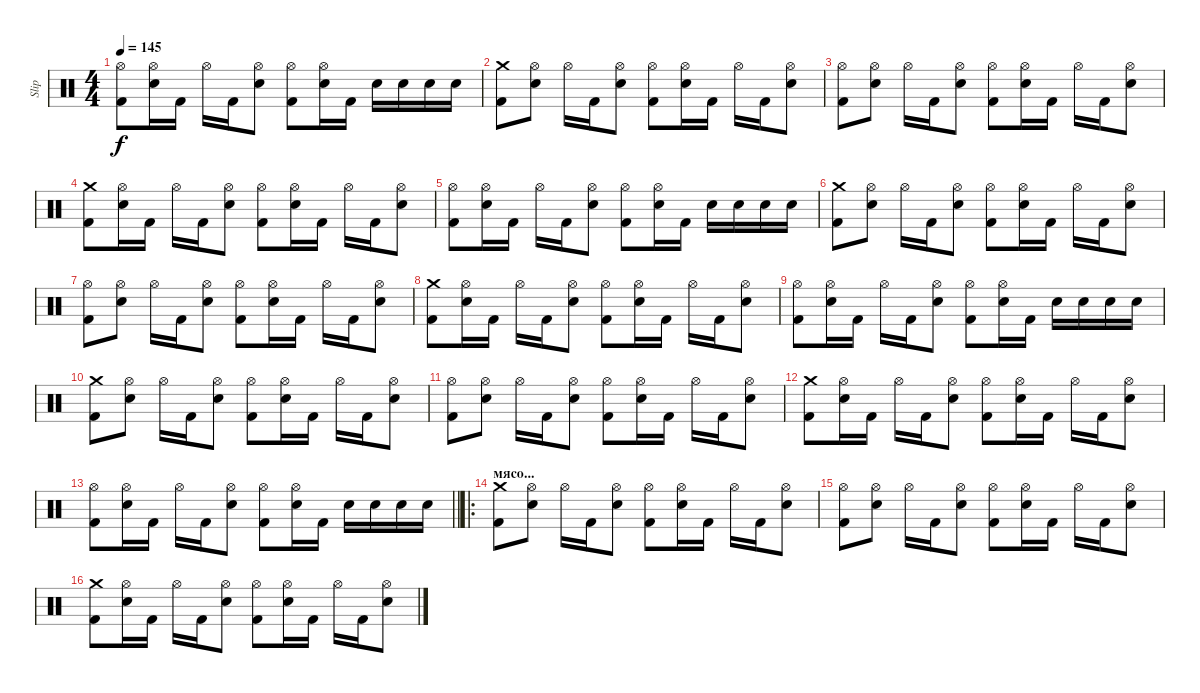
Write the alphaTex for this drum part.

\track ("Slip" "Slip") {instrument percussion}
\staff {score}
\articulation defaults
\ts (4 4)
\tempo 145
\clef neutral
\ks c
("Kick (hit) 2" "Hi-Hat (open)").8{dy f} ("Electric Snare (hit)" "Hi-Hat (open)").16 "Kick (hit) 2".16 "Hi-Hat (open)".16 "Kick (hit) 2".16 ("Electric Snare (hit)" "Hi-Hat (open)").8 ("Kick (hit) 2" "Hi-Hat (open)").8 ("Electric Snare (hit)" "Hi-Hat (open)").16 "Kick (hit) 2".16 "Electric Snare (hit)".16 "Electric Snare (hit)".16 "Electric Snare (hit)".16 "Electric Snare (hit)".16 |
("Kick (hit) 2" "Crash medium (hit)").8 ("Electric Snare (hit)" "Hi-Hat (open)").8 "Hi-Hat (open)".16 "Kick (hit) 2".16 ("Electric Snare (hit)" "Hi-Hat (open)").8 ("Kick (hit) 2" "Hi-Hat (open)").8 ("Electric Snare (hit)" "Hi-Hat (open)").16 "Kick (hit) 2".16 "Hi-Hat (open)".16 "Kick (hit) 2".16 ("Electric Snare (hit)" "Hi-Hat (open)").8 |
("Kick (hit) 2" "Hi-Hat (open)").8 ("Electric Snare (hit)" "Hi-Hat (open)").8 "Hi-Hat (open)".16 "Kick (hit) 2".16 ("Electric Snare (hit)" "Hi-Hat (open)").8 ("Kick (hit) 2" "Hi-Hat (open)").8 ("Electric Snare (hit)" "Hi-Hat (open)").16 "Kick (hit) 2".16 "Hi-Hat (open)".16 "Kick (hit) 2".16 ("Electric Snare (hit)" "Hi-Hat (open)").8 |
("Kick (hit) 2" "Crash medium (hit)").8 ("Electric Snare (hit)" "Hi-Hat (open)").16 "Kick (hit) 2".16 "Hi-Hat (open)".16 "Kick (hit) 2".16 ("Electric Snare (hit)" "Hi-Hat (open)").8 ("Kick (hit) 2" "Hi-Hat (open)").8 ("Electric Snare (hit)" "Hi-Hat (open)").16 "Kick (hit) 2".16 "Hi-Hat (open)".16 "Kick (hit) 2".16 ("Electric Snare (hit)" "Hi-Hat (open)").8 |
("Kick (hit) 2" "Hi-Hat (open)").8 ("Electric Snare (hit)" "Hi-Hat (open)").16 "Kick (hit) 2".16 "Hi-Hat (open)".16 "Kick (hit) 2".16 ("Electric Snare (hit)" "Hi-Hat (open)").8 ("Kick (hit) 2" "Hi-Hat (open)").8 ("Electric Snare (hit)" "Hi-Hat (open)").16 "Kick (hit) 2".16 "Electric Snare (hit)".16 "Electric Snare (hit)".16 "Electric Snare (hit)".16 "Electric Snare (hit)".16 |
("Kick (hit) 2" "Crash medium (hit)").8 ("Electric Snare (hit)" "Hi-Hat (open)").8 "Hi-Hat (open)".16 "Kick (hit) 2".16 ("Electric Snare (hit)" "Hi-Hat (open)").8 ("Kick (hit) 2" "Hi-Hat (open)").8 ("Electric Snare (hit)" "Hi-Hat (open)").16 "Kick (hit) 2".16 "Hi-Hat (open)".16 "Kick (hit) 2".16 ("Electric Snare (hit)" "Hi-Hat (open)").8 |
("Kick (hit) 2" "Hi-Hat (open)").8 ("Electric Snare (hit)" "Hi-Hat (open)").8 "Hi-Hat (open)".16 "Kick (hit) 2".16 ("Electric Snare (hit)" "Hi-Hat (open)").8 ("Kick (hit) 2" "Hi-Hat (open)").8 ("Electric Snare (hit)" "Hi-Hat (open)").16 "Kick (hit) 2".16 "Hi-Hat (open)".16 "Kick (hit) 2".16 ("Electric Snare (hit)" "Hi-Hat (open)").8 |
("Kick (hit) 2" "Crash medium (hit)").8 ("Electric Snare (hit)" "Hi-Hat (open)").16 "Kick (hit) 2".16 "Hi-Hat (open)".16 "Kick (hit) 2".16 ("Electric Snare (hit)" "Hi-Hat (open)").8 ("Kick (hit) 2" "Hi-Hat (open)").8 ("Electric Snare (hit)" "Hi-Hat (open)").16 "Kick (hit) 2".16 "Hi-Hat (open)".16 "Kick (hit) 2".16 ("Electric Snare (hit)" "Hi-Hat (open)").8 |
("Kick (hit) 2" "Hi-Hat (open)").8 ("Electric Snare (hit)" "Hi-Hat (open)").16 "Kick (hit) 2".16 "Hi-Hat (open)".16 "Kick (hit) 2".16 ("Electric Snare (hit)" "Hi-Hat (open)").8 ("Kick (hit) 2" "Hi-Hat (open)").8 ("Electric Snare (hit)" "Hi-Hat (open)").16 "Kick (hit) 2".16 "Electric Snare (hit)".16 "Electric Snare (hit)".16 "Electric Snare (hit)".16 "Electric Snare (hit)".16 |
("Kick (hit) 2" "Crash medium (hit)").8 ("Electric Snare (hit)" "Hi-Hat (open)").8 "Hi-Hat (open)".16 "Kick (hit) 2".16 ("Electric Snare (hit)" "Hi-Hat (open)").8 ("Kick (hit) 2" "Hi-Hat (open)").8 ("Electric Snare (hit)" "Hi-Hat (open)").16 "Kick (hit) 2".16 "Hi-Hat (open)".16 "Kick (hit) 2".16 ("Electric Snare (hit)" "Hi-Hat (open)").8 |
("Kick (hit) 2" "Hi-Hat (open)").8 ("Electric Snare (hit)" "Hi-Hat (open)").8 "Hi-Hat (open)".16 "Kick (hit) 2".16 ("Electric Snare (hit)" "Hi-Hat (open)").8 ("Kick (hit) 2" "Hi-Hat (open)").8 ("Electric Snare (hit)" "Hi-Hat (open)").16 "Kick (hit) 2".16 "Hi-Hat (open)".16 "Kick (hit) 2".16 ("Electric Snare (hit)" "Hi-Hat (open)").8 |
("Kick (hit) 2" "Crash medium (hit)").8 ("Electric Snare (hit)" "Hi-Hat (open)").16 "Kick (hit) 2".16 "Hi-Hat (open)".16 "Kick (hit) 2".16 ("Electric Snare (hit)" "Hi-Hat (open)").8 ("Kick (hit) 2" "Hi-Hat (open)").8 ("Electric Snare (hit)" "Hi-Hat (open)").16 "Kick (hit) 2".16 "Hi-Hat (open)".16 "Kick (hit) 2".16 ("Electric Snare (hit)" "Hi-Hat (open)").8 |
\barLineRight lightlight
("Kick (hit) 2" "Hi-Hat (open)").8 ("Electric Snare (hit)" "Hi-Hat (open)").16 "Kick (hit) 2".16 "Hi-Hat (open)".16 "Kick (hit) 2".16 ("Electric Snare (hit)" "Hi-Hat (open)").8 ("Kick (hit) 2" "Hi-Hat (open)").8 ("Electric Snare (hit)" "Hi-Hat (open)").16 "Kick (hit) 2".16 "Electric Snare (hit)".16 "Electric Snare (hit)".16 "Electric Snare (hit)".16 "Electric Snare (hit)".16 |
\ro
\section ("" "мясо...")
("Kick (hit) 2" "Crash medium (hit)").8 ("Electric Snare (hit)" "Hi-Hat (open)").8 "Hi-Hat (open)".16 "Kick (hit) 2".16 ("Electric Snare (hit)" "Hi-Hat (open)").8 ("Kick (hit) 2" "Hi-Hat (open)").8 ("Electric Snare (hit)" "Hi-Hat (open)").16 "Kick (hit) 2".16 "Hi-Hat (open)".16 "Kick (hit) 2".16 ("Electric Snare (hit)" "Hi-Hat (open)").8 |
("Kick (hit) 2" "Hi-Hat (open)").8 ("Electric Snare (hit)" "Hi-Hat (open)").8 "Hi-Hat (open)".16 "Kick (hit) 2".16 ("Electric Snare (hit)" "Hi-Hat (open)").8 ("Kick (hit) 2" "Hi-Hat (open)").8 ("Electric Snare (hit)" "Hi-Hat (open)").16 "Kick (hit) 2".16 "Hi-Hat (open)".16 "Kick (hit) 2".16 ("Electric Snare (hit)" "Hi-Hat (open)").8 |
("Kick (hit) 2" "Crash medium (hit)").8 ("Electric Snare (hit)" "Hi-Hat (open)").16 "Kick (hit) 2".16 "Hi-Hat (open)".16 "Kick (hit) 2".16 ("Electric Snare (hit)" "Hi-Hat (open)").8 ("Kick (hit) 2" "Hi-Hat (open)").8 ("Electric Snare (hit)" "Hi-Hat (open)").16 "Kick (hit) 2".16 "Hi-Hat (open)".16 "Kick (hit) 2".16 ("Electric Snare (hit)" "Hi-Hat (open)").8
